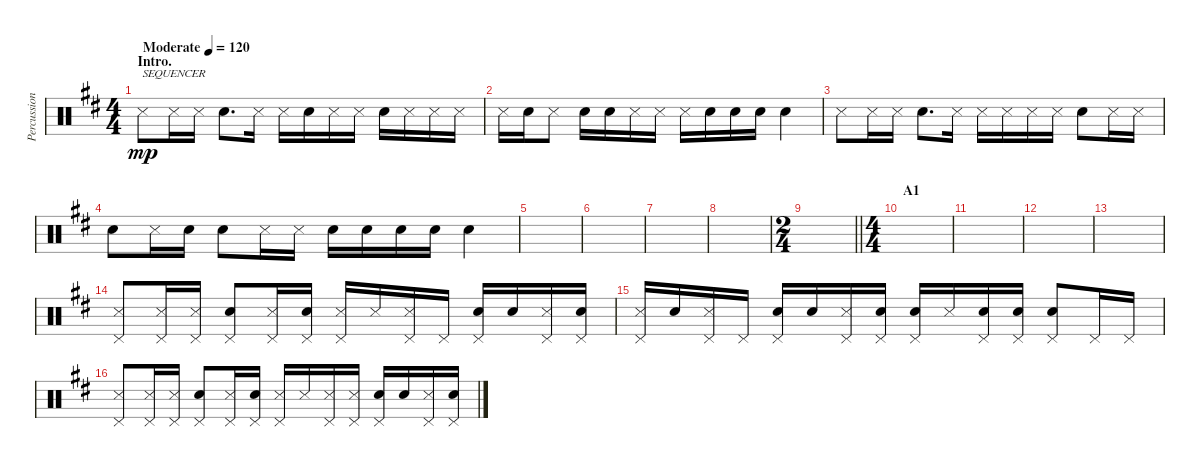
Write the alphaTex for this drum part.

\track ("Percussion (Tainaka Ritsu)" "Percussion") {instrument percussion}
\staff {score}
\articulation defaults
\ts (4 4)
\section ("" "Intro.")
\tempo (120 "Moderate")
\clef neutral
\ks d "Snare (side stick) 3".8{txt "SEQUENCER" dy mp} "Snare (side stick) 3".16 "Snare (side stick) 3".16 "Snare (hit) 2".8{d} "Snare (side stick) 3".16 "Snare (side stick) 3".16 "Snare (hit) 2".16 "Snare (side stick) 3".16 "Snare (side stick) 3".16 "Snare (hit) 2".16 "Snare (side stick) 3".16 "Snare (side stick) 3".16 "Snare (side stick) 3".16
|
"Snare (side stick) 3".16 "Snare (hit) 2".16 "Snare (side stick) 3".8 "Snare (hit) 2".16 "Snare (hit) 2".16 "Snare (side stick) 3".16 "Snare (side stick) 3".16 "Snare (side stick) 3".16 "Snare (hit) 2".16 "Snare (hit) 2".16 "Snare (hit) 2".16 "Snare (hit) 2".4 |
"Snare (side stick) 3".8 "Snare (side stick) 3".16 "Snare (side stick) 3".16 "Snare (hit) 2".8{d} "Snare (side stick) 3".16 "Snare (side stick) 3".16 "Snare (side stick) 3".16 "Snare (side stick) 3".16 "Snare (side stick) 3".16 "Snare (hit) 2".8 "Snare (side stick) 3".16 "Snare (side stick) 3".16 |
"Snare (hit) 2".8 "Snare (side stick) 3".16 "Snare (hit) 2".16 "Snare (hit) 2".8 "Snare (side stick) 3".16 "Snare (side stick) 3".16 "Snare (hit) 2".16 "Snare (hit) 2".16 "Snare (hit) 2".16 "Snare (hit) 2".16 "Snare (hit) 2".4 |
|
|
|
|
\ts (2 4)
\barLineRight lightlight
|
\ts (4 4)
\section ("" "A1")
|
|
|
|
("Snare (side stick) 3" "Pedal Hi-Hat (hit)").8 ("Snare (side stick) 3" "Pedal Hi-Hat (hit)").16 ("Snare (side stick) 3" "Pedal Hi-Hat (hit)").16 ("Snare (hit) 2" "Pedal Hi-Hat (hit)").8 ("Snare (side stick) 3" "Pedal Hi-Hat (hit)").16 ("Snare (hit) 2" "Pedal Hi-Hat (hit)").16 ("Snare (side stick) 3" "Pedal Hi-Hat (hit)").16 "Snare (side stick) 3".16 ("Snare (side stick) 3" "Pedal Hi-Hat (hit)").16 "Pedal Hi-Hat (hit)".16 ("Snare (hit) 2" "Pedal Hi-Hat (hit)").16 "Snare (hit) 2".16 ("Snare (side stick) 3" "Pedal Hi-Hat (hit)").16 ("Snare (hit) 2" "Pedal Hi-Hat (hit)").16 |
("Snare (side stick) 3" "Pedal Hi-Hat (hit)").16 "Snare (hit) 2".16 ("Snare (side stick) 3" "Pedal Hi-Hat (hit)").16 "Pedal Hi-Hat (hit)".16 ("Snare (hit) 2" "Pedal Hi-Hat (hit)").16 "Snare (hit) 2".16 ("Snare (side stick) 3" "Pedal Hi-Hat (hit)").16 ("Snare (hit) 2" "Pedal Hi-Hat (hit)").16 ("Snare (hit) 2" "Pedal Hi-Hat (hit)").16 "Snare (side stick) 3".16 ("Snare (hit) 2" "Pedal Hi-Hat (hit)").16 ("Snare (hit) 2" "Pedal Hi-Hat (hit)").16 ("Snare (hit) 2" "Pedal Hi-Hat (hit)").8 "Pedal Hi-Hat (hit)".16 "Pedal Hi-Hat (hit)".16 |
("Snare (side stick) 3" "Pedal Hi-Hat (hit)").8 ("Snare (side stick) 3" "Pedal Hi-Hat (hit)").16 ("Snare (side stick) 3" "Pedal Hi-Hat (hit)").16 ("Snare (hit) 2" "Pedal Hi-Hat (hit)").8 ("Snare (side stick) 3" "Pedal Hi-Hat (hit)").16 ("Snare (hit) 2" "Pedal Hi-Hat (hit)").16 ("Snare (side stick) 3" "Pedal Hi-Hat (hit)").16 "Snare (side stick) 3".16 ("Snare (side stick) 3" "Pedal Hi-Hat (hit)").16 ("Snare (side stick) 3" "Pedal Hi-Hat (hit)").16 ("Snare (hit) 2" "Pedal Hi-Hat (hit)").16 "Snare (hit) 2".16 ("Snare (side stick) 3" "Pedal Hi-Hat (hit)").16 ("Snare (hit) 2" "Pedal Hi-Hat (hit)").16
